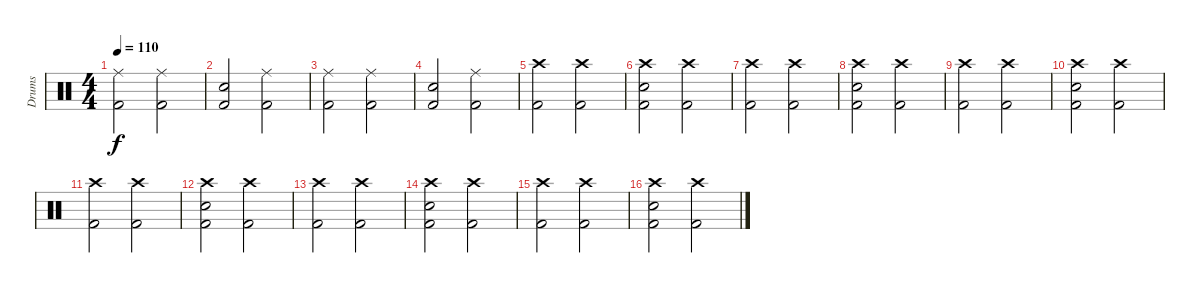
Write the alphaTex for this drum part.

\track ("Drums" "Drums") {instrument percussion}
\staff {score}
\articulation defaults
\ts (4 4)
\tempo 110
\clef neutral
\ks c
("Kick (hit) 2" "Ride (middle)").2{dy f} ("Kick (hit) 2" "Ride (middle)").2 |
("Kick (hit) 2" "Snare (hit) 2").2 ("Kick (hit) 2" "Ride (middle)").2 |
("Kick (hit) 2" "Ride (middle)").2 ("Kick (hit) 2" "Ride (middle)").2 |
("Kick (hit) 2" "Snare (hit) 2").2 ("Kick (hit) 2" "Ride (middle)").2 |
("Kick (hit) 2" "Crash high (hit)").2 ("Kick (hit) 2" "Crash high (hit)").2 |
("Kick (hit) 2" "Snare (hit) 2" "Crash high (hit)").2 ("Kick (hit) 2" "Crash high (hit)").2 |
("Kick (hit) 2" "Crash high (hit)").2 ("Kick (hit) 2" "Crash high (hit)").2 |
("Kick (hit) 2" "Snare (hit) 2" "Crash high (hit)").2 ("Kick (hit) 2" "Crash high (hit)").2 |
("Kick (hit) 2" "Crash high (hit)").2 ("Kick (hit) 2" "Crash high (hit)").2 |
("Kick (hit) 2" "Snare (hit) 2" "Crash high (hit)").2 ("Kick (hit) 2" "Crash high (hit)").2 |
("Kick (hit) 2" "Crash high (hit)").2 ("Kick (hit) 2" "Crash high (hit)").2 |
("Kick (hit) 2" "Snare (hit) 2" "Crash high (hit)").2 ("Kick (hit) 2" "Crash high (hit)").2 |
("Kick (hit) 2" "Crash high (hit)").2 ("Kick (hit) 2" "Crash high (hit)").2 |
("Kick (hit) 2" "Snare (hit) 2" "Crash high (hit)").2 ("Kick (hit) 2" "Crash high (hit)").2 |
("Kick (hit) 2" "Crash high (hit)").2 ("Kick (hit) 2" "Crash high (hit)").2 |
("Kick (hit) 2" "Snare (hit) 2" "Crash high (hit)").2 ("Kick (hit) 2" "Crash high (hit)").2
